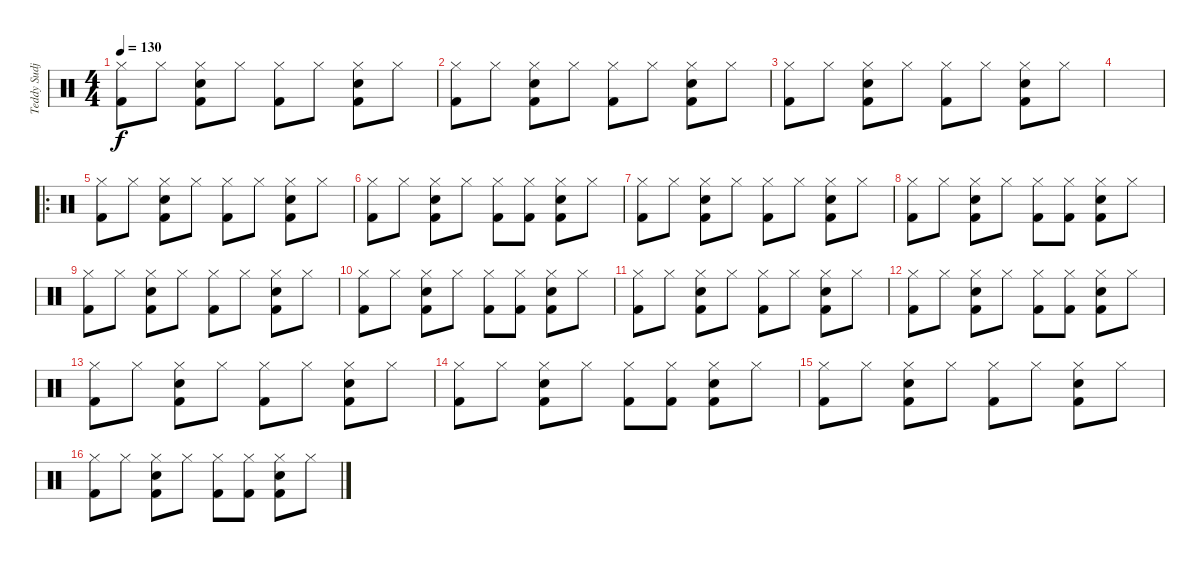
\track ("Teddy Sudjaya (drum)" "Teddy Sudj") {instrument percussion}
\staff {score}
\articulation defaults
\ts (4 4)
\tempo 130
\clef neutral
\ks c
("Hi-Hat (closed)" "Kick (hit) 2").8{dy f} "Hi-Hat (closed)".8 ("Snare (hit) 2" "Hi-Hat (closed)" "Kick (hit) 2").8 "Hi-Hat (closed)".8 ("Hi-Hat (closed)" "Kick (hit) 2").8 "Hi-Hat (closed)".8 ("Snare (hit) 2" "Hi-Hat (closed)" "Kick (hit) 2").8 "Hi-Hat (closed)".8 |
("Hi-Hat (closed)" "Kick (hit) 2").8 "Hi-Hat (closed)".8 ("Snare (hit) 2" "Hi-Hat (closed)" "Kick (hit) 2").8 "Hi-Hat (closed)".8 ("Hi-Hat (closed)" "Kick (hit) 2").8 "Hi-Hat (closed)".8 ("Snare (hit) 2" "Hi-Hat (closed)" "Kick (hit) 2").8 "Hi-Hat (closed)".8 |
("Hi-Hat (closed)" "Kick (hit) 2").8 "Hi-Hat (closed)".8 ("Snare (hit) 2" "Hi-Hat (closed)" "Kick (hit) 2").8 "Hi-Hat (closed)".8 ("Hi-Hat (closed)" "Kick (hit) 2").8 "Hi-Hat (closed)".8 ("Snare (hit) 2" "Hi-Hat (closed)" "Kick (hit) 2").8 "Hi-Hat (closed)".8 |
|
\ro
("Hi-Hat (closed)" "Kick (hit) 2").8 "Hi-Hat (closed)".8 ("Snare (hit) 2" "Hi-Hat (closed)" "Kick (hit) 2").8 "Hi-Hat (closed)".8 ("Hi-Hat (closed)" "Kick (hit) 2").8 "Hi-Hat (closed)".8 ("Snare (hit) 2" "Hi-Hat (closed)" "Kick (hit) 2").8 "Hi-Hat (closed)".8 |
("Hi-Hat (closed)" "Kick (hit) 2").8 "Hi-Hat (closed)".8 ("Snare (hit) 2" "Hi-Hat (closed)" "Kick (hit) 2").8 "Hi-Hat (closed)".8 ("Hi-Hat (closed)" "Kick (hit) 2").8 ("Hi-Hat (closed)" "Kick (hit) 2").8 ("Snare (hit) 2" "Hi-Hat (closed)" "Kick (hit) 2").8 "Hi-Hat (closed)".8 |
("Hi-Hat (closed)" "Kick (hit) 2").8 "Hi-Hat (closed)".8 ("Snare (hit) 2" "Hi-Hat (closed)" "Kick (hit) 2").8 "Hi-Hat (closed)".8 ("Hi-Hat (closed)" "Kick (hit) 2").8 "Hi-Hat (closed)".8 ("Snare (hit) 2" "Hi-Hat (closed)" "Kick (hit) 2").8 "Hi-Hat (closed)".8 |
("Hi-Hat (closed)" "Kick (hit) 2").8 "Hi-Hat (closed)".8 ("Snare (hit) 2" "Hi-Hat (closed)" "Kick (hit) 2").8 "Hi-Hat (closed)".8 ("Hi-Hat (closed)" "Kick (hit) 2").8 ("Hi-Hat (closed)" "Kick (hit) 2").8 ("Snare (hit) 2" "Hi-Hat (closed)" "Kick (hit) 2").8 "Hi-Hat (closed)".8 |
("Hi-Hat (closed)" "Kick (hit) 2").8 "Hi-Hat (closed)".8 ("Snare (hit) 2" "Hi-Hat (closed)" "Kick (hit) 2").8 "Hi-Hat (closed)".8 ("Hi-Hat (closed)" "Kick (hit) 2").8 "Hi-Hat (closed)".8 ("Snare (hit) 2" "Hi-Hat (closed)" "Kick (hit) 2").8 "Hi-Hat (closed)".8 |
("Hi-Hat (closed)" "Kick (hit) 2").8 "Hi-Hat (closed)".8 ("Snare (hit) 2" "Hi-Hat (closed)" "Kick (hit) 2").8 "Hi-Hat (closed)".8 ("Hi-Hat (closed)" "Kick (hit) 2").8 ("Hi-Hat (closed)" "Kick (hit) 2").8 ("Snare (hit) 2" "Hi-Hat (closed)" "Kick (hit) 2").8 "Hi-Hat (closed)".8 |
("Hi-Hat (closed)" "Kick (hit) 2").8 "Hi-Hat (closed)".8 ("Snare (hit) 2" "Hi-Hat (closed)" "Kick (hit) 2").8 "Hi-Hat (closed)".8 ("Hi-Hat (closed)" "Kick (hit) 2").8 "Hi-Hat (closed)".8 ("Snare (hit) 2" "Hi-Hat (closed)" "Kick (hit) 2").8 "Hi-Hat (closed)".8 |
("Hi-Hat (closed)" "Kick (hit) 2").8 "Hi-Hat (closed)".8 ("Snare (hit) 2" "Hi-Hat (closed)" "Kick (hit) 2").8 "Hi-Hat (closed)".8 ("Hi-Hat (closed)" "Kick (hit) 2").8 ("Hi-Hat (closed)" "Kick (hit) 2").8 ("Snare (hit) 2" "Hi-Hat (closed)" "Kick (hit) 2").8 "Hi-Hat (closed)".8 |
("Hi-Hat (closed)" "Kick (hit) 2").8 "Hi-Hat (closed)".8 ("Snare (hit) 2" "Hi-Hat (closed)" "Kick (hit) 2").8 "Hi-Hat (closed)".8 ("Hi-Hat (closed)" "Kick (hit) 2").8 "Hi-Hat (closed)".8 ("Snare (hit) 2" "Hi-Hat (closed)" "Kick (hit) 2").8 "Hi-Hat (closed)".8 |
("Hi-Hat (closed)" "Kick (hit) 2").8 "Hi-Hat (closed)".8 ("Snare (hit) 2" "Hi-Hat (closed)" "Kick (hit) 2").8 "Hi-Hat (closed)".8 ("Hi-Hat (closed)" "Kick (hit) 2").8 ("Hi-Hat (closed)" "Kick (hit) 2").8 ("Snare (hit) 2" "Hi-Hat (closed)" "Kick (hit) 2").8 "Hi-Hat (closed)".8 |
("Hi-Hat (closed)" "Kick (hit) 2").8 "Hi-Hat (closed)".8 ("Snare (hit) 2" "Hi-Hat (closed)" "Kick (hit) 2").8 "Hi-Hat (closed)".8 ("Hi-Hat (closed)" "Kick (hit) 2").8 "Hi-Hat (closed)".8 ("Snare (hit) 2" "Hi-Hat (closed)" "Kick (hit) 2").8 "Hi-Hat (closed)".8 |
("Hi-Hat (closed)" "Kick (hit) 2").8 "Hi-Hat (closed)".8 ("Snare (hit) 2" "Hi-Hat (closed)" "Kick (hit) 2").8 "Hi-Hat (closed)".8 ("Hi-Hat (closed)" "Kick (hit) 2").8 ("Hi-Hat (closed)" "Kick (hit) 2").8 ("Snare (hit) 2" "Hi-Hat (closed)" "Kick (hit) 2").8 "Hi-Hat (closed)".8
